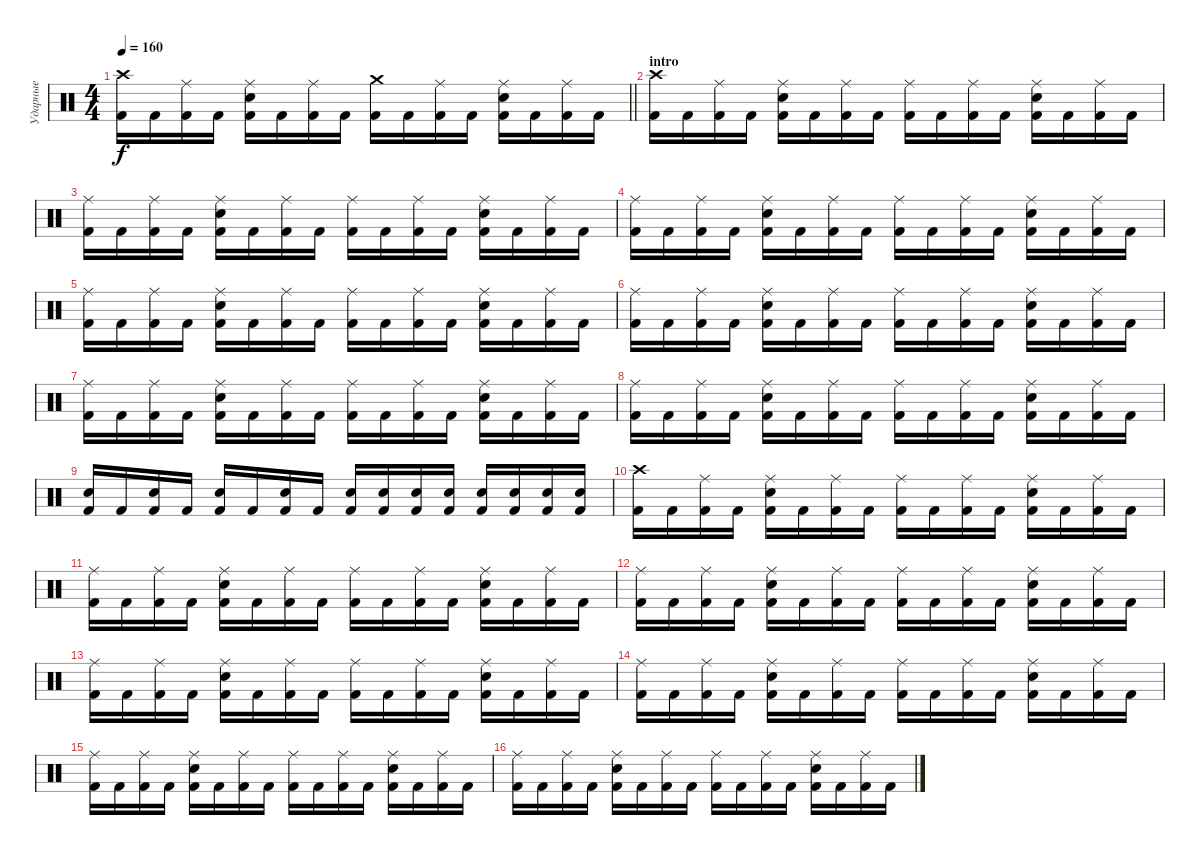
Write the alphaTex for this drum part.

\track ("Ударные" "Ударные") {instrument percussion}
\staff {score}
\articulation defaults
\ts (4 4)
\tempo 160
\clef neutral
\barLineRight lightlight
\ks c
("Crash high (hit)" "Kick (hit) 2").16{dy f} "Kick (hit) 2".16 ("Ride (middle)" "Kick (hit) 2").16 "Kick (hit) 2".16 ("Ride (middle)" "Electric Snare (hit)" "Kick (hit) 2").16 "Kick (hit) 2".16 ("Ride (middle)" "Kick (hit) 2").16 "Kick (hit) 2".16 ("Crash medium (hit)" "Kick (hit) 2").16 "Kick (hit) 2".16 ("Ride (middle)" "Kick (hit) 2").16 "Kick (hit) 2".16 ("Ride (middle)" "Electric Snare (hit)" "Kick (hit) 2").16 "Kick (hit) 2".16 ("Ride (middle)" "Kick (hit) 2").16 "Kick (hit) 2".16 |
\section ("" "intro")
("Crash high (hit)" "Kick (hit) 2").16 "Kick (hit) 2".16 ("Ride (middle)" "Kick (hit) 2").16 "Kick (hit) 2".16 ("Ride (middle)" "Electric Snare (hit)" "Kick (hit) 2").16 "Kick (hit) 2".16 ("Ride (middle)" "Kick (hit) 2").16 "Kick (hit) 2".16 ("Ride (middle)" "Kick (hit) 2").16 "Kick (hit) 2".16 ("Ride (middle)" "Kick (hit) 2").16 "Kick (hit) 2".16 ("Ride (middle)" "Electric Snare (hit)" "Kick (hit) 2").16 "Kick (hit) 2".16 ("Ride (middle)" "Kick (hit) 2").16 "Kick (hit) 2".16 |
("Ride (middle)" "Kick (hit) 2").16 "Kick (hit) 2".16 ("Ride (middle)" "Kick (hit) 2").16 "Kick (hit) 2".16 ("Ride (middle)" "Electric Snare (hit)" "Kick (hit) 2").16 "Kick (hit) 2".16 ("Ride (middle)" "Kick (hit) 2").16 "Kick (hit) 2".16 ("Ride (middle)" "Kick (hit) 2").16 "Kick (hit) 2".16 ("Ride (middle)" "Kick (hit) 2").16 "Kick (hit) 2".16 ("Ride (middle)" "Electric Snare (hit)" "Kick (hit) 2").16 "Kick (hit) 2".16 ("Ride (middle)" "Kick (hit) 2").16 "Kick (hit) 2".16 |
("Ride (middle)" "Kick (hit) 2").16 "Kick (hit) 2".16 ("Ride (middle)" "Kick (hit) 2").16 "Kick (hit) 2".16 ("Ride (middle)" "Electric Snare (hit)" "Kick (hit) 2").16 "Kick (hit) 2".16 ("Ride (middle)" "Kick (hit) 2").16 "Kick (hit) 2".16 ("Ride (middle)" "Kick (hit) 2").16 "Kick (hit) 2".16 ("Ride (middle)" "Kick (hit) 2").16 "Kick (hit) 2".16 ("Ride (middle)" "Electric Snare (hit)" "Kick (hit) 2").16 "Kick (hit) 2".16 ("Ride (middle)" "Kick (hit) 2").16 "Kick (hit) 2".16 |
("Ride (middle)" "Kick (hit) 2").16 "Kick (hit) 2".16 ("Ride (middle)" "Kick (hit) 2").16 "Kick (hit) 2".16 ("Ride (middle)" "Electric Snare (hit)" "Kick (hit) 2").16 "Kick (hit) 2".16 ("Ride (middle)" "Kick (hit) 2").16 "Kick (hit) 2".16 ("Ride (middle)" "Kick (hit) 2").16 "Kick (hit) 2".16 ("Ride (middle)" "Kick (hit) 2").16 "Kick (hit) 2".16 ("Ride (middle)" "Electric Snare (hit)" "Kick (hit) 2").16 "Kick (hit) 2".16 ("Ride (middle)" "Kick (hit) 2").16 "Kick (hit) 2".16 |
("Ride (middle)" "Kick (hit) 2").16 "Kick (hit) 2".16 ("Ride (middle)" "Kick (hit) 2").16 "Kick (hit) 2".16 ("Ride (middle)" "Electric Snare (hit)" "Kick (hit) 2").16 "Kick (hit) 2".16 ("Ride (middle)" "Kick (hit) 2").16 "Kick (hit) 2".16 ("Ride (middle)" "Kick (hit) 2").16 "Kick (hit) 2".16 ("Ride (middle)" "Kick (hit) 2").16 "Kick (hit) 2".16 ("Ride (middle)" "Electric Snare (hit)" "Kick (hit) 2").16 "Kick (hit) 2".16 ("Ride (middle)" "Kick (hit) 2").16 "Kick (hit) 2".16 |
("Ride (middle)" "Kick (hit) 2").16 "Kick (hit) 2".16 ("Ride (middle)" "Kick (hit) 2").16 "Kick (hit) 2".16 ("Ride (middle)" "Electric Snare (hit)" "Kick (hit) 2").16 "Kick (hit) 2".16 ("Ride (middle)" "Kick (hit) 2").16 "Kick (hit) 2".16 ("Ride (middle)" "Kick (hit) 2").16 "Kick (hit) 2".16 ("Ride (middle)" "Kick (hit) 2").16 "Kick (hit) 2".16 ("Ride (middle)" "Electric Snare (hit)" "Kick (hit) 2").16 "Kick (hit) 2".16 ("Ride (middle)" "Kick (hit) 2").16 "Kick (hit) 2".16 |
("Ride (middle)" "Kick (hit) 2").16 "Kick (hit) 2".16 ("Ride (middle)" "Kick (hit) 2").16 "Kick (hit) 2".16 ("Ride (middle)" "Electric Snare (hit)" "Kick (hit) 2").16 "Kick (hit) 2".16 ("Ride (middle)" "Kick (hit) 2").16 "Kick (hit) 2".16 ("Ride (middle)" "Kick (hit) 2").16 "Kick (hit) 2".16 ("Ride (middle)" "Kick (hit) 2").16 "Kick (hit) 2".16 ("Ride (middle)" "Electric Snare (hit)" "Kick (hit) 2").16 "Kick (hit) 2".16 ("Ride (middle)" "Kick (hit) 2").16 "Kick (hit) 2".16 |
("Electric Snare (hit)" "Kick (hit) 2").16 "Kick (hit) 2".16 ("Electric Snare (hit)" "Kick (hit) 2").16 "Kick (hit) 2".16 ("Electric Snare (hit)" "Kick (hit) 2").16 "Kick (hit) 2".16 ("Electric Snare (hit)" "Kick (hit) 2").16 "Kick (hit) 2".16 ("Electric Snare (hit)" "Kick (hit) 2").16 ("Electric Snare (hit)" "Kick (hit) 2").16 ("Electric Snare (hit)" "Kick (hit) 2").16 ("Electric Snare (hit)" "Kick (hit) 2").16 ("Electric Snare (hit)" "Kick (hit) 2").16 ("Electric Snare (hit)" "Kick (hit) 2").16 ("Electric Snare (hit)" "Kick (hit) 2").16 ("Electric Snare (hit)" "Kick (hit) 2").16 |
("Crash high (hit)" "Kick (hit) 2").16 "Kick (hit) 2".16 ("Ride (middle)" "Kick (hit) 2").16 "Kick (hit) 2".16 ("Ride (middle)" "Electric Snare (hit)" "Kick (hit) 2").16 "Kick (hit) 2".16 ("Ride (middle)" "Kick (hit) 2").16 "Kick (hit) 2".16 ("Ride (middle)" "Kick (hit) 2").16 "Kick (hit) 2".16 ("Ride (middle)" "Kick (hit) 2").16 "Kick (hit) 2".16 ("Ride (middle)" "Electric Snare (hit)" "Kick (hit) 2").16 "Kick (hit) 2".16 ("Ride (middle)" "Kick (hit) 2").16 "Kick (hit) 2".16 |
("Ride (middle)" "Kick (hit) 2").16 "Kick (hit) 2".16 ("Ride (middle)" "Kick (hit) 2").16 "Kick (hit) 2".16 ("Ride (middle)" "Electric Snare (hit)" "Kick (hit) 2").16 "Kick (hit) 2".16 ("Ride (middle)" "Kick (hit) 2").16 "Kick (hit) 2".16 ("Ride (middle)" "Kick (hit) 2").16 "Kick (hit) 2".16 ("Ride (middle)" "Kick (hit) 2").16 "Kick (hit) 2".16 ("Ride (middle)" "Electric Snare (hit)" "Kick (hit) 2").16 "Kick (hit) 2".16 ("Ride (middle)" "Kick (hit) 2").16 "Kick (hit) 2".16 |
("Ride (middle)" "Kick (hit) 2").16 "Kick (hit) 2".16 ("Ride (middle)" "Kick (hit) 2").16 "Kick (hit) 2".16 ("Ride (middle)" "Electric Snare (hit)" "Kick (hit) 2").16 "Kick (hit) 2".16 ("Ride (middle)" "Kick (hit) 2").16 "Kick (hit) 2".16 ("Ride (middle)" "Kick (hit) 2").16 "Kick (hit) 2".16 ("Ride (middle)" "Kick (hit) 2").16 "Kick (hit) 2".16 ("Ride (middle)" "Electric Snare (hit)" "Kick (hit) 2").16 "Kick (hit) 2".16 ("Ride (middle)" "Kick (hit) 2").16 "Kick (hit) 2".16 |
("Ride (middle)" "Kick (hit) 2").16 "Kick (hit) 2".16 ("Ride (middle)" "Kick (hit) 2").16 "Kick (hit) 2".16 ("Ride (middle)" "Electric Snare (hit)" "Kick (hit) 2").16 "Kick (hit) 2".16 ("Ride (middle)" "Kick (hit) 2").16 "Kick (hit) 2".16 ("Ride (middle)" "Kick (hit) 2").16 "Kick (hit) 2".16 ("Ride (middle)" "Kick (hit) 2").16 "Kick (hit) 2".16 ("Ride (middle)" "Electric Snare (hit)" "Kick (hit) 2").16 "Kick (hit) 2".16 ("Ride (middle)" "Kick (hit) 2").16 "Kick (hit) 2".16 |
("Ride (middle)" "Kick (hit) 2").16 "Kick (hit) 2".16 ("Ride (middle)" "Kick (hit) 2").16 "Kick (hit) 2".16 ("Ride (middle)" "Electric Snare (hit)" "Kick (hit) 2").16 "Kick (hit) 2".16 ("Ride (middle)" "Kick (hit) 2").16 "Kick (hit) 2".16 ("Ride (middle)" "Kick (hit) 2").16 "Kick (hit) 2".16 ("Ride (middle)" "Kick (hit) 2").16 "Kick (hit) 2".16 ("Ride (middle)" "Electric Snare (hit)" "Kick (hit) 2").16 "Kick (hit) 2".16 ("Ride (middle)" "Kick (hit) 2").16 "Kick (hit) 2".16 |
("Ride (middle)" "Kick (hit) 2").16 "Kick (hit) 2".16 ("Ride (middle)" "Kick (hit) 2").16 "Kick (hit) 2".16 ("Ride (middle)" "Electric Snare (hit)" "Kick (hit) 2").16 "Kick (hit) 2".16 ("Ride (middle)" "Kick (hit) 2").16 "Kick (hit) 2".16 ("Ride (middle)" "Kick (hit) 2").16 "Kick (hit) 2".16 ("Ride (middle)" "Kick (hit) 2").16 "Kick (hit) 2".16 ("Ride (middle)" "Electric Snare (hit)" "Kick (hit) 2").16 "Kick (hit) 2".16 ("Ride (middle)" "Kick (hit) 2").16 "Kick (hit) 2".16 |
("Ride (middle)" "Kick (hit) 2").16 "Kick (hit) 2".16 ("Ride (middle)" "Kick (hit) 2").16 "Kick (hit) 2".16 ("Ride (middle)" "Electric Snare (hit)" "Kick (hit) 2").16 "Kick (hit) 2".16 ("Ride (middle)" "Kick (hit) 2").16 "Kick (hit) 2".16 ("Ride (middle)" "Kick (hit) 2").16 "Kick (hit) 2".16 ("Ride (middle)" "Kick (hit) 2").16 "Kick (hit) 2".16 ("Ride (middle)" "Electric Snare (hit)" "Kick (hit) 2").16 "Kick (hit) 2".16 ("Ride (middle)" "Kick (hit) 2").16 "Kick (hit) 2".16
